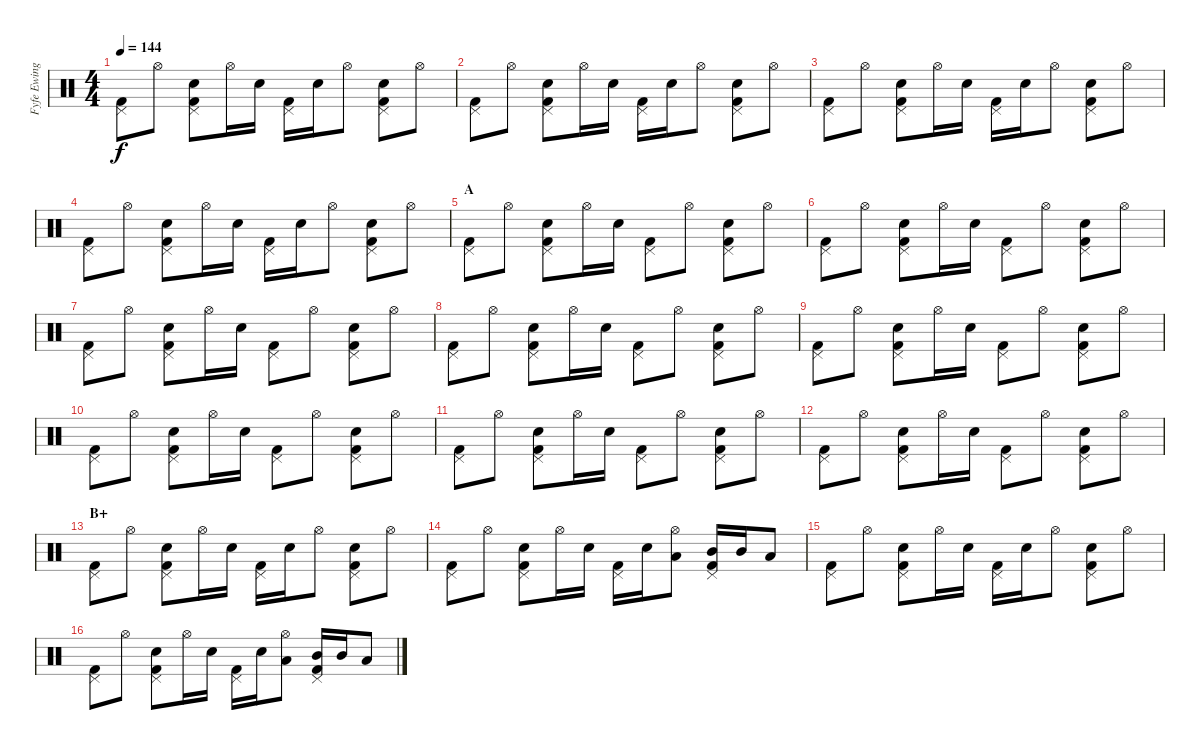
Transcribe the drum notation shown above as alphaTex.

\track ("Fyfe Ewing" "Fyfe Ewing") {instrument percussion}
\staff {score}
\articulation defaults
\ts (4 4)
\tempo 144
\clef neutral
\ks c
("Pedal Hi-Hat (hit)" "Kick (hit) 2").8{dy f} "Hi-Hat (open)".8 ("Pedal Hi-Hat (hit)" "Snare (hit) 2" "Kick (hit) 2").8 "Hi-Hat (open)".16 "Snare (hit) 2".16 ("Pedal Hi-Hat (hit)" "Kick (hit) 2").16 "Snare (hit) 2".16 "Hi-Hat (open)".8 ("Pedal Hi-Hat (hit)" "Snare (hit) 2" "Kick (hit) 2").8 "Hi-Hat (open)".8 |
("Pedal Hi-Hat (hit)" "Kick (hit) 2").8 "Hi-Hat (open)".8 ("Pedal Hi-Hat (hit)" "Snare (hit) 2" "Kick (hit) 2").8 "Hi-Hat (open)".16 "Snare (hit) 2".16 ("Pedal Hi-Hat (hit)" "Kick (hit) 2").16 "Snare (hit) 2".16 "Hi-Hat (open)".8 ("Pedal Hi-Hat (hit)" "Snare (hit) 2" "Kick (hit) 2").8 "Hi-Hat (open)".8 |
("Pedal Hi-Hat (hit)" "Kick (hit) 2").8 "Hi-Hat (open)".8 ("Pedal Hi-Hat (hit)" "Snare (hit) 2" "Kick (hit) 2").8 "Hi-Hat (open)".16 "Snare (hit) 2".16 ("Pedal Hi-Hat (hit)" "Kick (hit) 2").16 "Snare (hit) 2".16 "Hi-Hat (open)".8 ("Pedal Hi-Hat (hit)" "Snare (hit) 2" "Kick (hit) 2").8 "Hi-Hat (open)".8 |
("Pedal Hi-Hat (hit)" "Kick (hit) 2").8 "Hi-Hat (open)".8 ("Pedal Hi-Hat (hit)" "Snare (hit) 2" "Kick (hit) 2").8 "Hi-Hat (open)".16 "Snare (hit) 2".16 ("Pedal Hi-Hat (hit)" "Kick (hit) 2").16 "Snare (hit) 2".16 "Hi-Hat (open)".8 ("Pedal Hi-Hat (hit)" "Snare (hit) 2" "Kick (hit) 2").8 "Hi-Hat (open)".8 |
\section ("" "A")
("Pedal Hi-Hat (hit)" "Kick (hit) 2").8 "Hi-Hat (open)".8 ("Pedal Hi-Hat (hit)" "Snare (hit) 2" "Kick (hit) 2").8 "Hi-Hat (open)".16 "Snare (hit) 2".16 ("Pedal Hi-Hat (hit)" "Kick (hit) 2").8 "Hi-Hat (open)".8 ("Pedal Hi-Hat (hit)" "Snare (hit) 2" "Kick (hit) 2").8 "Hi-Hat (open)".8 |
("Pedal Hi-Hat (hit)" "Kick (hit) 2").8 "Hi-Hat (open)".8 ("Pedal Hi-Hat (hit)" "Snare (hit) 2" "Kick (hit) 2").8 "Hi-Hat (open)".16 "Snare (hit) 2".16 ("Pedal Hi-Hat (hit)" "Kick (hit) 2").8 "Hi-Hat (open)".8 ("Pedal Hi-Hat (hit)" "Snare (hit) 2" "Kick (hit) 2").8 "Hi-Hat (open)".8 |
("Pedal Hi-Hat (hit)" "Kick (hit) 2").8 "Hi-Hat (open)".8 ("Pedal Hi-Hat (hit)" "Snare (hit) 2" "Kick (hit) 2").8 "Hi-Hat (open)".16 "Snare (hit) 2".16 ("Pedal Hi-Hat (hit)" "Kick (hit) 2").8 "Hi-Hat (open)".8 ("Pedal Hi-Hat (hit)" "Snare (hit) 2" "Kick (hit) 2").8 "Hi-Hat (open)".8 |
("Pedal Hi-Hat (hit)" "Kick (hit) 2").8 "Hi-Hat (open)".8 ("Pedal Hi-Hat (hit)" "Snare (hit) 2" "Kick (hit) 2").8 "Hi-Hat (open)".16 "Snare (hit) 2".16 ("Pedal Hi-Hat (hit)" "Kick (hit) 2").8 "Hi-Hat (open)".8 ("Pedal Hi-Hat (hit)" "Snare (hit) 2" "Kick (hit) 2").8 "Hi-Hat (open)".8 |
("Pedal Hi-Hat (hit)" "Kick (hit) 2").8 "Hi-Hat (open)".8 ("Pedal Hi-Hat (hit)" "Snare (hit) 2" "Kick (hit) 2").8 "Hi-Hat (open)".16 "Snare (hit) 2".16 ("Pedal Hi-Hat (hit)" "Kick (hit) 2").8 "Hi-Hat (open)".8 ("Pedal Hi-Hat (hit)" "Snare (hit) 2" "Kick (hit) 2").8 "Hi-Hat (open)".8 |
("Pedal Hi-Hat (hit)" "Kick (hit) 2").8 "Hi-Hat (open)".8 ("Pedal Hi-Hat (hit)" "Snare (hit) 2" "Kick (hit) 2").8 "Hi-Hat (open)".16 "Snare (hit) 2".16 ("Pedal Hi-Hat (hit)" "Kick (hit) 2").8 "Hi-Hat (open)".8 ("Pedal Hi-Hat (hit)" "Snare (hit) 2" "Kick (hit) 2").8 "Hi-Hat (open)".8 |
("Pedal Hi-Hat (hit)" "Kick (hit) 2").8 "Hi-Hat (open)".8 ("Pedal Hi-Hat (hit)" "Snare (hit) 2" "Kick (hit) 2").8 "Hi-Hat (open)".16 "Snare (hit) 2".16 ("Pedal Hi-Hat (hit)" "Kick (hit) 2").8 "Hi-Hat (open)".8 ("Pedal Hi-Hat (hit)" "Snare (hit) 2" "Kick (hit) 2").8 "Hi-Hat (open)".8 |
("Pedal Hi-Hat (hit)" "Kick (hit) 2").8 "Hi-Hat (open)".8 ("Pedal Hi-Hat (hit)" "Snare (hit) 2" "Kick (hit) 2").8 "Hi-Hat (open)".16 "Snare (hit) 2".16 ("Pedal Hi-Hat (hit)" "Kick (hit) 2").8 "Hi-Hat (open)".8 ("Pedal Hi-Hat (hit)" "Snare (hit) 2" "Kick (hit) 2").8 "Hi-Hat (open)".8 |
\section ("" "B+")
("Pedal Hi-Hat (hit)" "Kick (hit) 2").8 "Hi-Hat (open)".8 ("Pedal Hi-Hat (hit)" "Snare (hit) 2" "Kick (hit) 2").8 "Hi-Hat (open)".16 "Snare (hit) 2".16 ("Pedal Hi-Hat (hit)" "Kick (hit) 2").16 "Snare (hit) 2".16 "Hi-Hat (open)".8 ("Pedal Hi-Hat (hit)" "Snare (hit) 2" "Kick (hit) 2").8 "Hi-Hat (open)".8 |
("Pedal Hi-Hat (hit)" "Kick (hit) 2").8 "Hi-Hat (open)".8 ("Pedal Hi-Hat (hit)" "Snare (hit) 2" "Kick (hit) 2").8 "Hi-Hat (open)".16 "Snare (hit) 2".16 ("Pedal Hi-Hat (hit)" "Kick (hit) 2").16 "Snare (hit) 2".16 ("Hi-Hat (open)" "Low Tom (hit)").8 ("Pedal Hi-Hat (hit)" "Mid Tom (hit)" "Kick (hit) 2").16 "Mid Tom (hit)".16 "Low Tom (hit)".8 |
("Pedal Hi-Hat (hit)" "Kick (hit) 2").8 "Hi-Hat (open)".8 ("Pedal Hi-Hat (hit)" "Snare (hit) 2" "Kick (hit) 2").8 "Hi-Hat (open)".16 "Snare (hit) 2".16 ("Pedal Hi-Hat (hit)" "Kick (hit) 2").16 "Snare (hit) 2".16 "Hi-Hat (open)".8 ("Pedal Hi-Hat (hit)" "Snare (hit) 2" "Kick (hit) 2").8 "Hi-Hat (open)".8 |
("Pedal Hi-Hat (hit)" "Kick (hit) 2").8 "Hi-Hat (open)".8 ("Pedal Hi-Hat (hit)" "Snare (hit) 2" "Kick (hit) 2").8 "Hi-Hat (open)".16 "Snare (hit) 2".16 ("Pedal Hi-Hat (hit)" "Kick (hit) 2").16 "Snare (hit) 2".16 ("Hi-Hat (open)" "Low Tom (hit)").8 ("Pedal Hi-Hat (hit)" "Mid Tom (hit)" "Kick (hit) 2").16 "Mid Tom (hit)".16 "Low Tom (hit)".8
